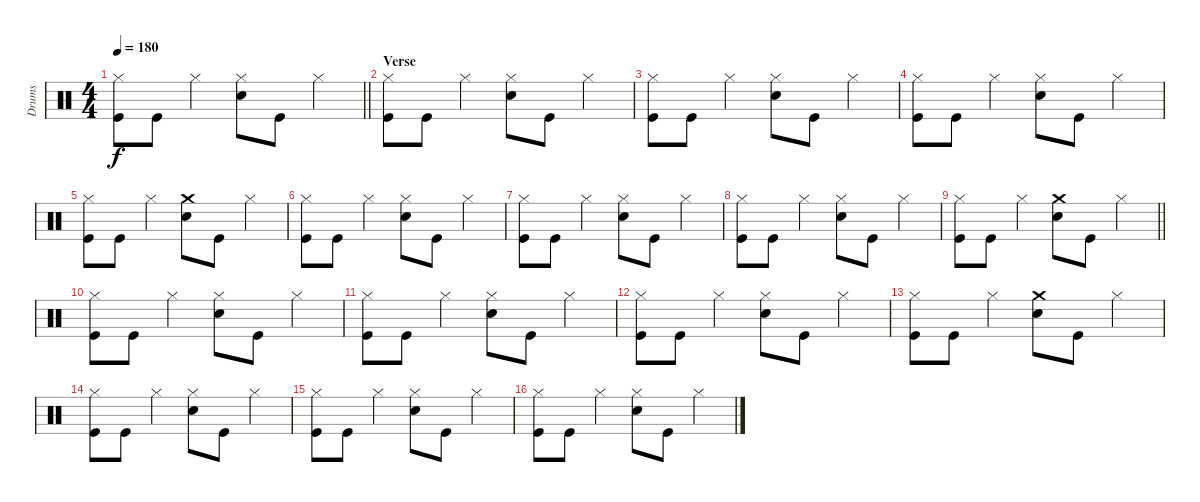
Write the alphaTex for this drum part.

\track ("Drums" "Drums") {instrument percussion}
\staff {score}
\articulation defaults
\ts (4 4)
\tempo 180
\clef neutral
\barLineRight lightlight
\ks c
("Hi-Hat (closed)" "Kick (hit)").8{dy f} "Kick (hit)".8 "Hi-Hat (closed)".4 ("Hi-Hat (closed)" "Snare (hit) 2").8 "Kick (hit)".8 "Hi-Hat (closed)".4 |
\section ("" "Verse")
("Hi-Hat (closed)" "Kick (hit)").8 "Kick (hit)".8 "Hi-Hat (closed)".4 ("Hi-Hat (closed)" "Snare (hit) 2").8 "Kick (hit)".8 "Hi-Hat (closed)".4 |
("Hi-Hat (closed)" "Kick (hit)").8 "Kick (hit)".8 "Hi-Hat (closed)".4 ("Hi-Hat (closed)" "Snare (hit) 2").8 "Kick (hit)".8 "Hi-Hat (closed)".4 |
("Hi-Hat (closed)" "Kick (hit)").8 "Kick (hit)".8 "Hi-Hat (closed)".4 ("Hi-Hat (closed)" "Snare (hit) 2").8 "Kick (hit)".8 "Hi-Hat (closed)".4 |
("Hi-Hat (closed)" "Kick (hit)").8 "Kick (hit)".8 "Hi-Hat (closed)".4 ("Crash medium (hit)" "Snare (hit) 2").8 "Kick (hit)".8 "Hi-Hat (closed)".4 |
("Hi-Hat (closed)" "Kick (hit)").8 "Kick (hit)".8 "Hi-Hat (closed)".4 ("Hi-Hat (closed)" "Snare (hit) 2").8 "Kick (hit)".8 "Hi-Hat (closed)".4 |
("Hi-Hat (closed)" "Kick (hit)").8 "Kick (hit)".8 "Hi-Hat (closed)".4 ("Hi-Hat (closed)" "Snare (hit) 2").8 "Kick (hit)".8 "Hi-Hat (closed)".4 |
("Hi-Hat (closed)" "Kick (hit)").8 "Kick (hit)".8 "Hi-Hat (closed)".4 ("Hi-Hat (closed)" "Snare (hit) 2").8 "Kick (hit)".8 "Hi-Hat (closed)".4 |
\barLineRight lightlight
("Hi-Hat (closed)" "Kick (hit)").8 "Kick (hit)".8 "Hi-Hat (closed)".4 ("Crash medium (hit)" "Snare (hit) 2").8 "Kick (hit)".8 "Hi-Hat (closed)".4 |
("Hi-Hat (closed)" "Kick (hit)").8 "Kick (hit)".8 "Hi-Hat (closed)".4 ("Hi-Hat (closed)" "Snare (hit) 2").8 "Kick (hit)".8 "Hi-Hat (closed)".4 |
("Hi-Hat (closed)" "Kick (hit)").8 "Kick (hit)".8 "Hi-Hat (closed)".4 ("Hi-Hat (closed)" "Snare (hit) 2").8 "Kick (hit)".8 "Hi-Hat (closed)".4 |
("Hi-Hat (closed)" "Kick (hit)").8 "Kick (hit)".8 "Hi-Hat (closed)".4 ("Hi-Hat (closed)" "Snare (hit) 2").8 "Kick (hit)".8 "Hi-Hat (closed)".4 |
("Hi-Hat (closed)" "Kick (hit)").8 "Kick (hit)".8 "Hi-Hat (closed)".4 ("Crash medium (hit)" "Snare (hit) 2").8 "Kick (hit)".8 "Hi-Hat (closed)".4 |
("Hi-Hat (closed)" "Kick (hit)").8 "Kick (hit)".8 "Hi-Hat (closed)".4 ("Hi-Hat (closed)" "Snare (hit) 2").8 "Kick (hit)".8 "Hi-Hat (closed)".4 |
("Hi-Hat (closed)" "Kick (hit)").8 "Kick (hit)".8 "Hi-Hat (closed)".4 ("Hi-Hat (closed)" "Snare (hit) 2").8 "Kick (hit)".8 "Hi-Hat (closed)".4 |
("Hi-Hat (closed)" "Kick (hit)").8 "Kick (hit)".8 "Hi-Hat (closed)".4 ("Hi-Hat (closed)" "Snare (hit) 2").8 "Kick (hit)".8 "Hi-Hat (closed)".4
